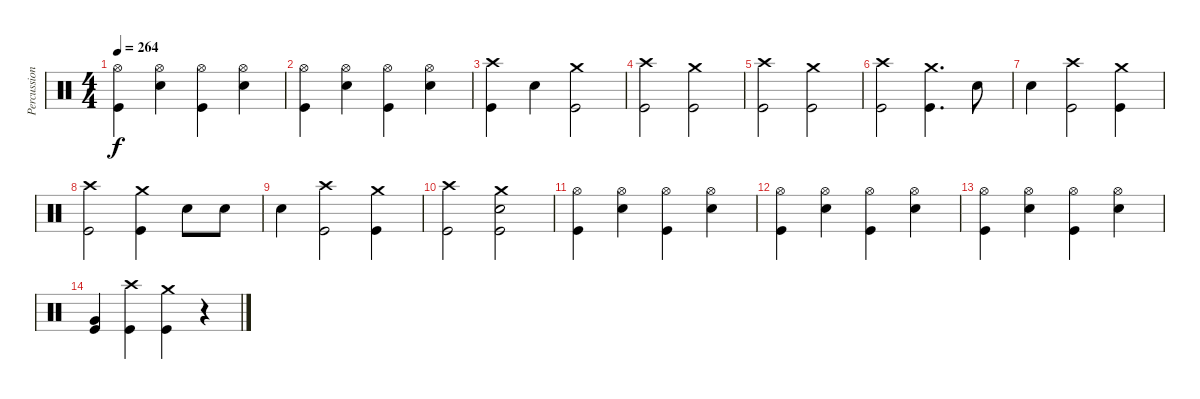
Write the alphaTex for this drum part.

\track ("Percussion" "Percussion") {instrument percussion}
\staff {score}
\articulation defaults
\ts (4 4)
\tempo 264
\clef neutral
\ks c
("Hi-Hat (open)" "Kick (hit)").4{dy f} ("Hi-Hat (open)" "Snare (hit) 2").4 ("Hi-Hat (open)" "Kick (hit)").4 ("Hi-Hat (open)" "Snare (hit) 2").4 |
("Hi-Hat (open)" "Kick (hit)").4 ("Hi-Hat (open)" "Snare (hit) 2").4 ("Hi-Hat (open)" "Kick (hit)").4 ("Hi-Hat (open)" "Snare (hit) 2").4 |
("Crash high (hit)" "Kick (hit)").4 "Snare (hit) 2".4 ("Crash medium (hit)" "Kick (hit)").2 |
("Crash high (hit)" "Kick (hit)").2 ("Crash medium (hit)" "Kick (hit)").2 |
("Crash high (hit)" "Kick (hit)").2 ("Crash medium (hit)" "Kick (hit)").2 |
("Crash high (hit)" "Kick (hit)").2 ("Crash medium (hit)" "Kick (hit)").4{d} "Snare (hit) 2".8 |
"Snare (hit) 2".4 ("Crash high (hit)" "Kick (hit)").2 ("Crash medium (hit)" "Kick (hit)").4 |
("Crash high (hit)" "Kick (hit)").2 ("Crash medium (hit)" "Kick (hit)").4 "Snare (hit) 2".8 "Snare (hit) 2".8 |
"Snare (hit) 2".4 ("Crash high (hit)" "Kick (hit)").2 ("Crash medium (hit)" "Kick (hit)").4 |
("Crash high (hit)" "Kick (hit)").2 ("Crash medium (hit)" "Snare (hit) 2" "Kick (hit)").2 |
("Hi-Hat (open)" "Kick (hit)").4 ("Hi-Hat (open)" "Snare (hit) 2").4 ("Hi-Hat (open)" "Kick (hit)").4 ("Hi-Hat (open)" "Snare (hit) 2").4 |
("Hi-Hat (open)" "Kick (hit)").4 ("Hi-Hat (open)" "Snare (hit) 2").4 ("Hi-Hat (open)" "Kick (hit)").4 ("Hi-Hat (open)" "Snare (hit) 2").4 |
("Hi-Hat (open)" "Kick (hit)").4 ("Hi-Hat (open)" "Snare (hit) 2").4 ("Hi-Hat (open)" "Kick (hit)").4 ("Hi-Hat (open)" "Snare (hit) 2").4 |
("Very Low Tom (hit)" "Kick (hit)").4 ("Crash high (hit)" "Kick (hit)").4 ("Crash medium (hit)" "Kick (hit)").4 r.4
